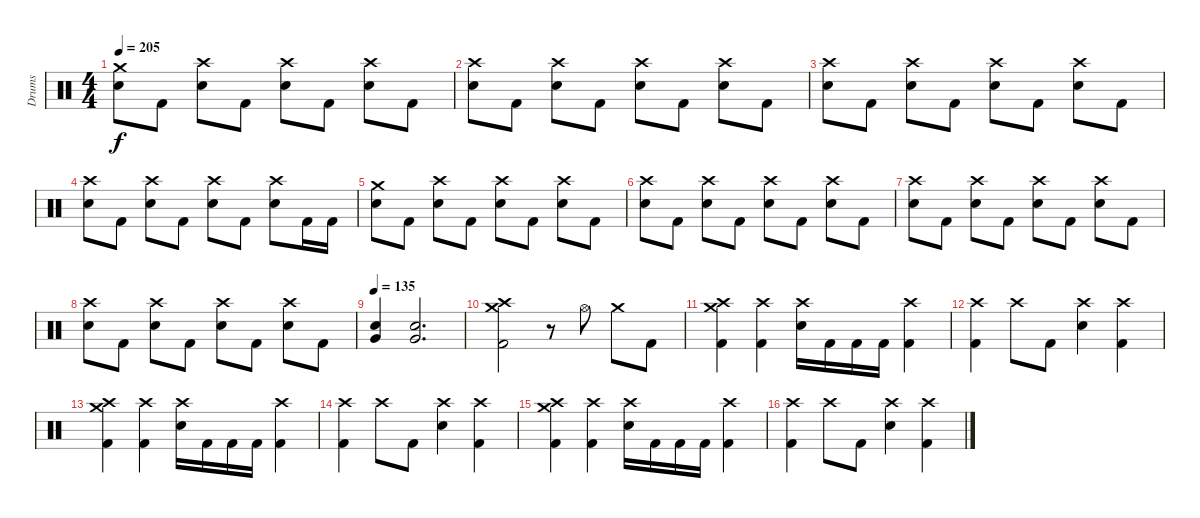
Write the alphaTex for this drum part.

\track ("Drums" "Drums") {instrument percussion}
\staff {score}
\articulation defaults
\ts (4 4)
\tempo 205
\clef neutral
\ks c
("Crash medium (hit)"{t} "Snare (hit)"{t}).8{dy f} "Kick (hit) 2".8 ("Crash high (hit)" "Electric Snare (hit)").8 "Kick (hit) 2".8 ("Crash high (hit)" "Electric Snare (hit)").8 "Kick (hit) 2".8 ("Crash high (hit)" "Electric Snare (hit)").8 "Kick (hit) 2".8 |
("Crash high (hit)" "Electric Snare (hit)").8 "Kick (hit) 2".8 ("Crash high (hit)" "Electric Snare (hit)").8 "Kick (hit) 2".8 ("Crash high (hit)" "Electric Snare (hit)").8 "Kick (hit) 2".8 ("Crash high (hit)" "Electric Snare (hit)").8 "Kick (hit) 2".8 |
("Crash high (hit)" "Electric Snare (hit)").8 "Kick (hit) 2".8 ("Crash high (hit)" "Electric Snare (hit)").8 "Kick (hit) 2".8 ("Crash high (hit)" "Electric Snare (hit)").8 "Kick (hit) 2".8 ("Crash high (hit)" "Electric Snare (hit)").8 "Kick (hit) 2".8 |
("Crash high (hit)" "Electric Snare (hit)").8 "Kick (hit) 2".8 ("Crash high (hit)" "Electric Snare (hit)").8 "Kick (hit) 2".8 ("Crash high (hit)" "Electric Snare (hit)").8 "Kick (hit) 2".8 ("Crash high (hit)" "Electric Snare (hit)").8 "Kick (hit) 2".16 "Kick (hit) 2".16 |
("Crash medium (hit)" "Electric Snare (hit)").8 "Kick (hit) 2".8 ("Crash high (hit)" "Electric Snare (hit)").8 "Kick (hit) 2".8 ("Crash high (hit)" "Electric Snare (hit)").8 "Kick (hit) 2".8 ("Crash high (hit)" "Electric Snare (hit)").8 "Kick (hit) 2".8 |
("Crash high (hit)" "Electric Snare (hit)").8 "Kick (hit) 2".8 ("Crash high (hit)" "Electric Snare (hit)").8 "Kick (hit) 2".8 ("Crash high (hit)" "Electric Snare (hit)").8 "Kick (hit) 2".8 ("Crash high (hit)" "Electric Snare (hit)").8 "Kick (hit) 2".8 |
("Crash high (hit)" "Electric Snare (hit)").8 "Kick (hit) 2".8 ("Crash high (hit)" "Electric Snare (hit)").8 "Kick (hit) 2".8 ("Crash high (hit)" "Electric Snare (hit)").8 "Kick (hit) 2".8 ("Crash high (hit)" "Electric Snare (hit)").8 "Kick (hit) 2".8 |
("Crash high (hit)" "Electric Snare (hit)").8 "Kick (hit) 2".8 ("Crash high (hit)" "Electric Snare (hit)").8 "Kick (hit) 2".8 ("Crash high (hit)" "Electric Snare (hit)").8 "Kick (hit) 2".8 ("Crash high (hit)" "Electric Snare (hit)").8 "Kick (hit) 2".8 |
\tempo 135
("Very Low Tom (hit)" "Electric Snare (hit)").4 ("Very Low Tom (hit)" "Electric Snare (hit)").2{d} |
("Crash high (hit)" "Crash medium (hit)" "Kick (hit) 2").2 r.8 "Hi-Hat (open)".8 "Crash medium (hit)".8 "Kick (hit) 2".8 |
("Crash high (hit)" "Crash medium (hit)" "Kick (hit) 2").4 ("Crash high (hit)" "Kick (hit) 2").4 ("Crash high (hit)" "Electric Snare (hit)").16 "Kick (hit) 2".16 "Kick (hit) 2".16 "Kick (hit) 2".16 ("Crash high (hit)" "Kick (hit) 2").4 |
("Crash high (hit)" "Kick (hit) 2").4 "Crash high (hit)".8 "Kick (hit) 2".8 ("Crash high (hit)" "Electric Snare (hit)").4 ("Crash high (hit)" "Kick (hit) 2").4 |
("Crash high (hit)" "Crash medium (hit)" "Kick (hit) 2").4 ("Crash high (hit)" "Kick (hit) 2").4 ("Crash high (hit)" "Electric Snare (hit)").16 "Kick (hit) 2".16 "Kick (hit) 2".16 "Kick (hit) 2".16 ("Crash high (hit)" "Kick (hit) 2").4 |
("Crash high (hit)" "Kick (hit) 2").4 "Crash high (hit)".8 "Kick (hit) 2".8 ("Crash high (hit)" "Electric Snare (hit)").4 ("Crash high (hit)" "Kick (hit) 2").4 |
("Crash high (hit)" "Crash medium (hit)" "Kick (hit) 2").4 ("Crash high (hit)" "Kick (hit) 2").4 ("Crash high (hit)" "Electric Snare (hit)").16 "Kick (hit) 2".16 "Kick (hit) 2".16 "Kick (hit) 2".16 ("Crash high (hit)" "Kick (hit) 2").4 |
("Crash high (hit)" "Kick (hit) 2").4 "Crash high (hit)".8 "Kick (hit) 2".8 ("Crash high (hit)" "Electric Snare (hit)").4 ("Crash high (hit)" "Kick (hit) 2").4
